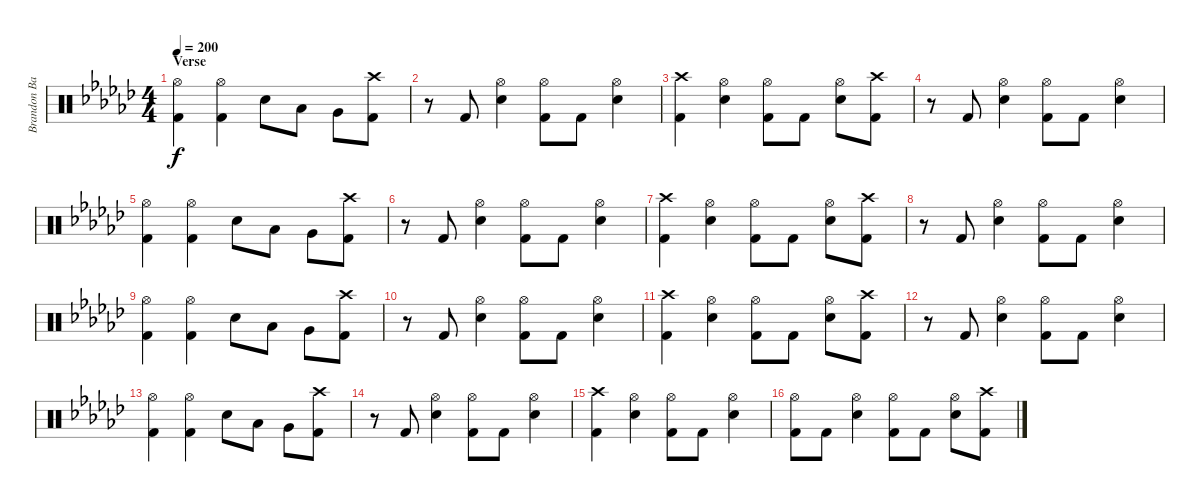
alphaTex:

\track ("Brandon Barnes - Drums" "Brandon Ba") {instrument percussion}
\staff {score}
\articulation defaults
\ts (4 4)
\section ("" "Verse")
\tempo 200
\clef neutral
\ks ebminor
("Hi-Hat (open)" "Kick (hit) 2").4{dy f} ("Hi-Hat (open)" "Kick (hit) 2").4 "Electric Snare (hit)".8 "Low Tom (hit)".8 "Very Low Tom (hit)".8 ("Crash high (hit)" "Kick (hit) 2").8 |
r.8 "Kick (hit) 2".8 ("Hi-Hat (open)" "Electric Snare (hit)").4 ("Hi-Hat (open)" "Kick (hit) 2").8 "Kick (hit) 2".8 ("Hi-Hat (open)" "Electric Snare (hit)").4 |
("Crash high (hit)" "Kick (hit) 2").4 ("Hi-Hat (open)" "Electric Snare (hit)").4 ("Hi-Hat (open)" "Kick (hit) 2").8 "Kick (hit) 2".8 ("Hi-Hat (open)" "Electric Snare (hit)").8 ("Crash high (hit)" "Kick (hit) 2").8 |
r.8 "Kick (hit) 2".8 ("Hi-Hat (open)" "Electric Snare (hit)").4 ("Hi-Hat (open)" "Kick (hit) 2").8 "Kick (hit) 2".8 ("Hi-Hat (open)" "Electric Snare (hit)").4 |
("Hi-Hat (open)" "Kick (hit) 2").4 ("Hi-Hat (open)" "Kick (hit) 2").4 "Electric Snare (hit)".8 "Low Tom (hit)".8 "Very Low Tom (hit)".8 ("Crash high (hit)" "Kick (hit) 2").8 |
r.8 "Kick (hit) 2".8 ("Hi-Hat (open)" "Electric Snare (hit)").4 ("Hi-Hat (open)" "Kick (hit) 2").8 "Kick (hit) 2".8 ("Hi-Hat (open)" "Electric Snare (hit)").4 |
("Crash high (hit)" "Kick (hit) 2").4 ("Hi-Hat (open)" "Electric Snare (hit)").4 ("Hi-Hat (open)" "Kick (hit) 2").8 "Kick (hit) 2".8 ("Hi-Hat (open)" "Electric Snare (hit)").8 ("Crash high (hit)" "Kick (hit) 2").8 |
r.8 "Kick (hit) 2".8 ("Hi-Hat (open)" "Electric Snare (hit)").4 ("Hi-Hat (open)" "Kick (hit) 2").8 "Kick (hit) 2".8 ("Hi-Hat (open)" "Electric Snare (hit)").4 |
("Hi-Hat (open)" "Kick (hit) 2").4 ("Hi-Hat (open)" "Kick (hit) 2").4 "Electric Snare (hit)".8 "Low Tom (hit)".8 "Very Low Tom (hit)".8 ("Crash high (hit)" "Kick (hit) 2").8 |
r.8 "Kick (hit) 2".8 ("Hi-Hat (open)" "Electric Snare (hit)").4 ("Hi-Hat (open)" "Kick (hit) 2").8 "Kick (hit) 2".8 ("Hi-Hat (open)" "Electric Snare (hit)").4 |
("Crash high (hit)" "Kick (hit) 2").4 ("Hi-Hat (open)" "Electric Snare (hit)").4 ("Hi-Hat (open)" "Kick (hit) 2").8 "Kick (hit) 2".8 ("Hi-Hat (open)" "Electric Snare (hit)").8 ("Crash high (hit)" "Kick (hit) 2").8 |
r.8 "Kick (hit) 2".8 ("Hi-Hat (open)" "Electric Snare (hit)").4 ("Hi-Hat (open)" "Kick (hit) 2").8 "Kick (hit) 2".8 ("Hi-Hat (open)" "Electric Snare (hit)").4 |
("Hi-Hat (open)" "Kick (hit) 2").4 ("Hi-Hat (open)" "Kick (hit) 2").4 "Electric Snare (hit)".8 "Low Tom (hit)".8 "Very Low Tom (hit)".8 ("Crash high (hit)" "Kick (hit) 2").8 |
r.8 "Kick (hit) 2".8 ("Hi-Hat (open)" "Electric Snare (hit)").4 ("Hi-Hat (open)" "Kick (hit) 2").8 "Kick (hit) 2".8 ("Hi-Hat (open)" "Electric Snare (hit)").4 |
("Crash high (hit)" "Kick (hit) 2").4 ("Hi-Hat (open)" "Electric Snare (hit)").4 ("Hi-Hat (open)" "Kick (hit) 2").8 "Kick (hit) 2".8 ("Hi-Hat (open)" "Electric Snare (hit)").4 |
("Hi-Hat (open)" "Kick (hit) 2").8 "Kick (hit) 2".8 ("Hi-Hat (open)" "Electric Snare (hit)").4 ("Hi-Hat (open)" "Kick (hit) 2").8 "Kick (hit) 2".8 ("Hi-Hat (open)" "Electric Snare (hit)").8 ("Crash high (hit)" "Kick (hit) 2").8
